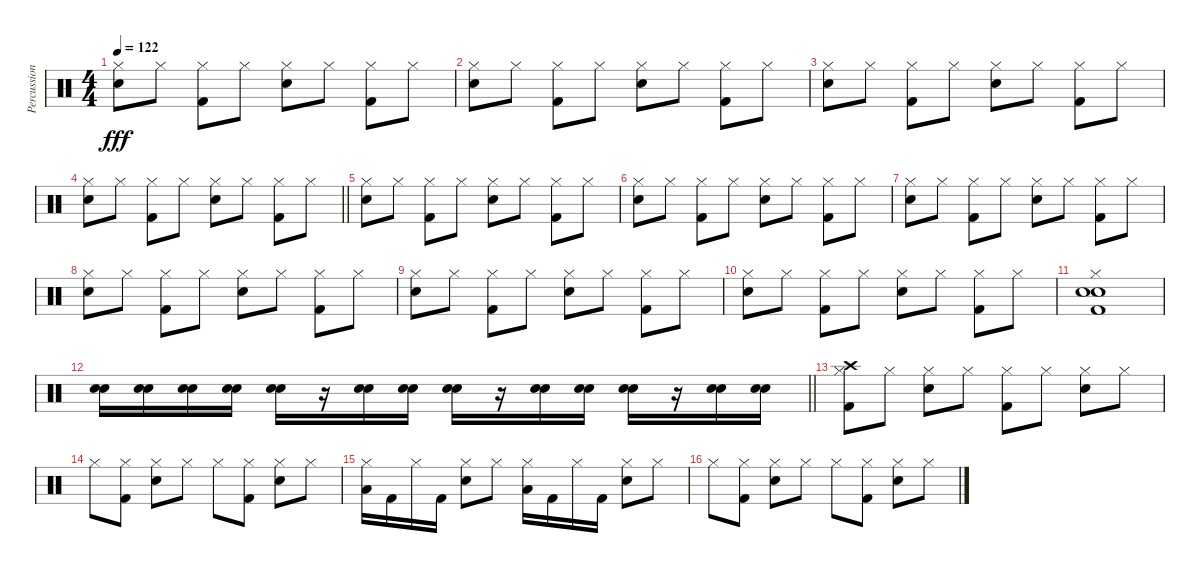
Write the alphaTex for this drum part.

\track ("Percussion" "Percussion") {instrument percussion}
\staff {score}
\articulation defaults
\ts (4 4)
\tempo 122
\clef neutral
\ks c
("Hi-Hat (closed)" "Electric Snare (hit)").8{dy fff} "Hi-Hat (closed)".8 ("Hi-Hat (closed)" "Kick (hit) 2").8 "Hi-Hat (closed)".8 ("Hi-Hat (closed)" "Electric Snare (hit)").8 "Hi-Hat (closed)".8 ("Hi-Hat (closed)" "Kick (hit) 2").8 "Hi-Hat (closed)".8 |
("Hi-Hat (closed)" "Electric Snare (hit)").8 "Hi-Hat (closed)".8 ("Hi-Hat (closed)" "Kick (hit) 2").8 "Hi-Hat (closed)".8 ("Hi-Hat (closed)" "Electric Snare (hit)").8 "Hi-Hat (closed)".8 ("Hi-Hat (closed)" "Kick (hit) 2").8 "Hi-Hat (closed)".8 |
("Hi-Hat (closed)" "Electric Snare (hit)").8 "Hi-Hat (closed)".8 ("Hi-Hat (closed)" "Kick (hit) 2").8 "Hi-Hat (closed)".8 ("Hi-Hat (closed)" "Electric Snare (hit)").8 "Hi-Hat (closed)".8 ("Hi-Hat (closed)" "Kick (hit) 2").8 "Hi-Hat (closed)".8 |
\barLineRight lightlight
("Hi-Hat (closed)" "Electric Snare (hit)").8 "Hi-Hat (closed)".8 ("Hi-Hat (closed)" "Kick (hit) 2").8 "Hi-Hat (closed)".8 ("Hi-Hat (closed)" "Electric Snare (hit)").8 "Hi-Hat (closed)".8 ("Hi-Hat (closed)" "Kick (hit) 2").8 "Hi-Hat (closed)".8 |
("Hi-Hat (closed)" "Electric Snare (hit)").8 "Hi-Hat (closed)".8 ("Hi-Hat (closed)" "Kick (hit) 2").8 "Hi-Hat (closed)".8 ("Hi-Hat (closed)" "Electric Snare (hit)").8 "Hi-Hat (closed)".8 ("Hi-Hat (closed)" "Kick (hit) 2").8 "Hi-Hat (closed)".8 |
("Hi-Hat (closed)" "Electric Snare (hit)").8 "Hi-Hat (closed)".8 ("Hi-Hat (closed)" "Kick (hit) 2").8 "Hi-Hat (closed)".8 ("Hi-Hat (closed)" "Electric Snare (hit)").8 "Hi-Hat (closed)".8 ("Hi-Hat (closed)" "Kick (hit) 2").8 "Hi-Hat (closed)".8 |
("Hi-Hat (closed)" "Electric Snare (hit)").8 "Hi-Hat (closed)".8 ("Hi-Hat (closed)" "Kick (hit) 2").8 "Hi-Hat (closed)".8 ("Hi-Hat (closed)" "Electric Snare (hit)").8 "Hi-Hat (closed)".8 ("Hi-Hat (closed)" "Kick (hit) 2").8 "Hi-Hat (closed)".8 |
("Hi-Hat (closed)" "Electric Snare (hit)").8 "Hi-Hat (closed)".8 ("Hi-Hat (closed)" "Kick (hit) 2").8 "Hi-Hat (closed)".8 ("Hi-Hat (closed)" "Electric Snare (hit)").8 "Hi-Hat (closed)".8 ("Hi-Hat (closed)" "Kick (hit) 2").8 "Hi-Hat (closed)".8 |
("Hi-Hat (closed)" "Electric Snare (hit)").8 "Hi-Hat (closed)".8 ("Hi-Hat (closed)" "Kick (hit) 2").8 "Hi-Hat (closed)".8 ("Hi-Hat (closed)" "Electric Snare (hit)").8 "Hi-Hat (closed)".8 ("Hi-Hat (closed)" "Kick (hit) 2").8 "Hi-Hat (closed)".8 |
("Hi-Hat (closed)" "Electric Snare (hit)").8 "Hi-Hat (closed)".8 ("Hi-Hat (closed)" "Kick (hit) 2").8 "Hi-Hat (closed)".8 ("Hi-Hat (closed)" "Electric Snare (hit)").8 "Hi-Hat (closed)".8 ("Hi-Hat (closed)" "Kick (hit) 2").8 "Hi-Hat (closed)".8 |
("Hi-Hat (closed)" "Snare (hit) 2" "Electric Snare (hit)" "Kick (hit) 2").1 |
\barLineRight lightlight
("Electric Snare (hit)" "Snare (hit) 2").16 ("Electric Snare (hit)" "Snare (hit) 2").16 ("Electric Snare (hit)" "Snare (hit) 2").16 ("Electric Snare (hit)" "Snare (hit) 2").16 ("Electric Snare (hit)" "Snare (hit) 2").16 r.16 ("Electric Snare (hit)" "Snare (hit) 2").16 ("Electric Snare (hit)" "Snare (hit) 2").16 ("Electric Snare (hit)" "Snare (hit) 2").16 r.16 ("Electric Snare (hit)" "Snare (hit) 2").16 ("Electric Snare (hit)" "Snare (hit) 2").16 ("Electric Snare (hit)" "Snare (hit) 2").16 r.16 ("Electric Snare (hit)" "Snare (hit) 2").16 ("Electric Snare (hit)" "Snare (hit) 2").16 |
("Crash high (hit)" "Hi-Hat (closed)" "Kick (hit) 2").8 "Hi-Hat (closed)".8 ("Hi-Hat (closed)" "Electric Snare (hit)").8 "Hi-Hat (closed)".8 ("Hi-Hat (closed)" "Kick (hit) 2").8 "Hi-Hat (closed)".8 ("Hi-Hat (closed)" "Electric Snare (hit)").8 "Hi-Hat (closed)".8 |
"Hi-Hat (closed)".8 ("Hi-Hat (closed)" "Kick (hit) 2").8 ("Hi-Hat (closed)" "Electric Snare (hit)").8 "Hi-Hat (closed)".8 "Hi-Hat (closed)".8 ("Hi-Hat (closed)" "Kick (hit) 2").8 ("Hi-Hat (closed)" "Electric Snare (hit)").8 "Hi-Hat (closed)".8 |
("Hi-Hat (closed)" "Low Tom (hit)").16 "Kick (hit) 2".16 "Hi-Hat (closed)".16 "Kick (hit) 2".16 ("Hi-Hat (closed)" "Electric Snare (hit)").8 "Hi-Hat (closed)".8 ("Hi-Hat (closed)" "Low Tom (hit)").16 "Kick (hit) 2".16 "Hi-Hat (closed)".16 "Kick (hit) 2".16 ("Hi-Hat (closed)" "Electric Snare (hit)").8 "Hi-Hat (closed)".8 |
"Hi-Hat (closed)".8 ("Hi-Hat (closed)" "Kick (hit) 2").8 ("Hi-Hat (closed)" "Electric Snare (hit)").8 "Hi-Hat (closed)".8 "Hi-Hat (closed)".8 ("Hi-Hat (closed)" "Kick (hit) 2").8 ("Hi-Hat (closed)" "Electric Snare (hit)").8 "Hi-Hat (closed)".8
